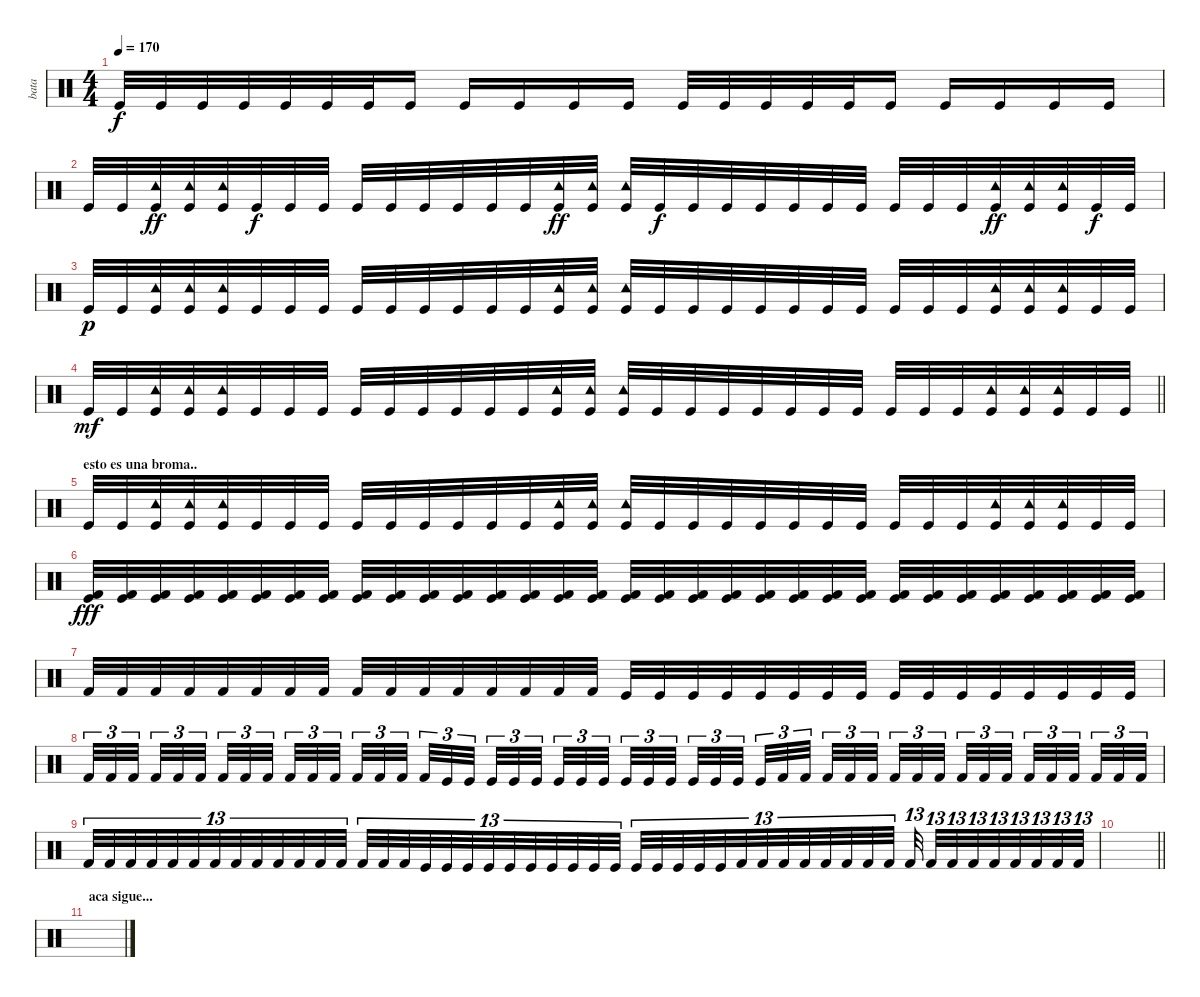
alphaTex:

\track ("bata" "bata") {instrument percussion}
\staff {score}
\articulation defaults
\ts (4 4)
\tempo 170
\clef neutral
\ks c "Kick (hit)".32{dy f} "Kick (hit)".32 "Kick (hit)".32 "Kick (hit)".32 "Kick (hit)".32 "Kick (hit)".32 "Kick (hit)".32 "Kick (hit)".16 "Kick (hit)".16 "Kick (hit)".16 "Kick (hit)".16 "Kick (hit)".16 "Kick (hit)".32 "Kick (hit)".32 "Kick (hit)".32 "Kick (hit)".32 "Kick (hit)".32 "Kick (hit)".16 "Kick (hit)".16 "Kick (hit)".16 "Kick (hit)".16 "Kick (hit)".16
|
"Kick (hit)".32 "Kick (hit)".32 ("Kick (hit)" "Tambourine (hit)").32{dy ff} ("Kick (hit)" "Tambourine (hit)").32 ("Kick (hit)" "Tambourine (hit)").32 "Kick (hit)".32{dy f} "Kick (hit)".32 "Kick (hit)".32 "Kick (hit)".32 "Kick (hit)".32 "Kick (hit)".32 "Kick (hit)".32 "Kick (hit)".32 "Kick (hit)".32 ("Kick (hit)" "Tambourine (hit)").32{dy ff} ("Kick (hit)" "Tambourine (hit)").32 ("Kick (hit)" "Tambourine (hit)").32 "Kick (hit)".32{dy f} "Kick (hit)".32 "Kick (hit)".32 "Kick (hit)".32 "Kick (hit)".32 "Kick (hit)".32 "Kick (hit)".32 "Kick (hit)".32 "Kick (hit)".32 "Kick (hit)".32 ("Kick (hit)" "Tambourine (hit)").32{dy ff} ("Kick (hit)" "Tambourine (hit)").32 ("Kick (hit)" "Tambourine (hit)").32 "Kick (hit)".32{dy f} "Kick (hit)".32 |
"Kick (hit)".32{dy p} "Kick (hit)".32 ("Kick (hit)" "Tambourine (hit)").32 ("Kick (hit)" "Tambourine (hit)").32 ("Kick (hit)" "Tambourine (hit)").32 "Kick (hit)".32 "Kick (hit)".32 "Kick (hit)".32 "Kick (hit)".32 "Kick (hit)".32 "Kick (hit)".32 "Kick (hit)".32 "Kick (hit)".32 "Kick (hit)".32 ("Kick (hit)" "Tambourine (hit)").32 ("Kick (hit)" "Tambourine (hit)").32 ("Kick (hit)" "Tambourine (hit)").32 "Kick (hit)".32 "Kick (hit)".32 "Kick (hit)".32 "Kick (hit)".32 "Kick (hit)".32 "Kick (hit)".32 "Kick (hit)".32 "Kick (hit)".32 "Kick (hit)".32 "Kick (hit)".32 ("Kick (hit)" "Tambourine (hit)").32 ("Kick (hit)" "Tambourine (hit)").32 ("Kick (hit)" "Tambourine (hit)").32 "Kick (hit)".32 "Kick (hit)".32 |
\barLineRight lightlight "Kick (hit)".32{dy mf} "Kick (hit)".32
("Kick (hit)" "Tambourine (hit)").32 ("Kick (hit)" "Tambourine (hit)").32 ("Kick (hit)" "Tambourine (hit)").32 "Kick (hit)".32 "Kick (hit)".32 "Kick (hit)".32 "Kick (hit)".32 "Kick (hit)".32 "Kick (hit)".32 "Kick (hit)".32 "Kick (hit)".32 "Kick (hit)".32 ("Kick (hit)" "Tambourine (hit)").32 ("Kick (hit)" "Tambourine (hit)").32 ("Kick (hit)" "Tambourine (hit)").32 "Kick (hit)".32 "Kick (hit)".32 "Kick (hit)".32 "Kick (hit)".32 "Kick (hit)".32 "Kick (hit)".32 "Kick (hit)".32 "Kick (hit)".32 "Kick (hit)".32 "Kick (hit)".32 ("Kick (hit)" "Tambourine (hit)").32 ("Kick (hit)" "Tambourine (hit)").32 ("Kick (hit)" "Tambourine (hit)").32 "Kick (hit)".32 "Kick (hit)".32 |
\section ("" "esto es una broma..")
"Kick (hit)".32 "Kick (hit)".32 ("Kick (hit)" "Tambourine (hit)").32 ("Kick (hit)" "Tambourine (hit)").32 ("Kick (hit)" "Tambourine (hit)").32 "Kick (hit)".32 "Kick (hit)".32 "Kick (hit)".32 "Kick (hit)".32 "Kick (hit)".32 "Kick (hit)".32 "Kick (hit)".32 "Kick (hit)".32 "Kick (hit)".32 ("Kick (hit)" "Tambourine (hit)").32 ("Kick (hit)" "Tambourine (hit)").32 ("Kick (hit)" "Tambourine (hit)").32 "Kick (hit)".32 "Kick (hit)".32 "Kick (hit)".32 "Kick (hit)".32 "Kick (hit)".32 "Kick (hit)".32 "Kick (hit)".32 "Kick (hit)".32 "Kick (hit)".32 "Kick (hit)".32 ("Kick (hit)" "Tambourine (hit)").32 ("Kick (hit)" "Tambourine (hit)").32 ("Kick (hit)" "Tambourine (hit)").32 "Kick (hit)".32 "Kick (hit)".32 |
("Kick (hit)" "Kick (hit) 2").32{dy fff} ("Kick (hit)" "Kick (hit) 2").32 ("Kick (hit)" "Kick (hit) 2").32 ("Kick (hit)" "Kick (hit) 2").32 ("Kick (hit)" "Kick (hit) 2").32 ("Kick (hit)" "Kick (hit) 2").32 ("Kick (hit)" "Kick (hit) 2").32 ("Kick (hit)" "Kick (hit) 2").32 ("Kick (hit)" "Kick (hit) 2").32 ("Kick (hit)" "Kick (hit) 2").32 ("Kick (hit)" "Kick (hit) 2").32 ("Kick (hit)" "Kick (hit) 2").32 ("Kick (hit)" "Kick (hit) 2").32 ("Kick (hit)" "Kick (hit) 2").32 ("Kick (hit)" "Kick (hit) 2").32 ("Kick (hit)" "Kick (hit) 2").32 ("Kick (hit)" "Kick (hit) 2").32 ("Kick (hit)" "Kick (hit) 2").32 ("Kick (hit)" "Kick (hit) 2").32 ("Kick (hit)" "Kick (hit) 2").32 ("Kick (hit)" "Kick (hit) 2").32 ("Kick (hit)" "Kick (hit) 2").32 ("Kick (hit)" "Kick (hit) 2").32 ("Kick (hit)" "Kick (hit) 2").32 ("Kick (hit)" "Kick (hit) 2").32 ("Kick (hit)" "Kick (hit) 2").32 ("Kick (hit)" "Kick (hit) 2").32 ("Kick (hit)" "Kick (hit) 2").32 ("Kick (hit)" "Kick (hit) 2").32 ("Kick (hit)" "Kick (hit) 2").32 ("Kick (hit)" "Kick (hit) 2").32 ("Kick (hit)" "Kick (hit) 2").32 |
"Kick (hit) 2".32 "Kick (hit) 2".32 "Kick (hit) 2".32 "Kick (hit) 2".32 "Kick (hit) 2".32 "Kick (hit) 2".32 "Kick (hit) 2".32 "Kick (hit) 2".32 "Kick (hit) 2".32 "Kick (hit) 2".32 "Kick (hit) 2".32 "Kick (hit) 2".32 "Kick (hit) 2".32 "Kick (hit) 2".32 "Kick (hit) 2".32 "Kick (hit) 2".32 "Kick (hit)".32 "Kick (hit)".32 "Kick (hit)".32 "Kick (hit)".32 "Kick (hit)".32 "Kick (hit)".32 "Kick (hit)".32 "Kick (hit)".32 "Kick (hit)".32 "Kick (hit)".32 "Kick (hit)".32 "Kick (hit)".32 "Kick (hit)".32 "Kick (hit)".32 "Kick (hit)".32 "Kick (hit)".32 |
"Kick (hit) 2".32{tu (3 2)} "Kick (hit) 2".32{tu (3 2)} "Kick (hit) 2".32{tu (3 2) beam splitsecondary} "Kick (hit) 2".32{tu (3 2)} "Kick (hit) 2".32{tu (3 2)} "Kick (hit) 2".32{tu (3 2) beam splitsecondary} "Kick (hit) 2".32{tu (3 2)} "Kick (hit) 2".32{tu (3 2)} "Kick (hit) 2".32{tu (3 2) beam splitsecondary} "Kick (hit) 2".32{tu (3 2)} "Kick (hit) 2".32{tu (3 2)} "Kick (hit) 2".32{tu (3 2)} "Kick (hit) 2".32{tu (3 2)} "Kick (hit) 2".32{tu (3 2)} "Kick (hit) 2".32{tu (3 2) beam splitsecondary} "Kick (hit) 2".32{tu (3 2)} "Kick (hit)".32{tu (3 2)} "Kick (hit)".32{tu (3 2) beam splitsecondary} "Kick (hit)".32{tu (3 2)} "Kick (hit)".32{tu (3 2)} "Kick (hit)".32{tu (3 2) beam splitsecondary} "Kick (hit)".32{tu (3 2)} "Kick (hit)".32{tu (3 2)} "Kick (hit)".32{tu (3 2)} "Kick (hit)".32{tu (3 2)} "Kick (hit)".32{tu (3 2)} "Kick (hit)".32{tu (3 2) beam splitsecondary} "Kick (hit)".32{tu (3 2)} "Kick (hit)".32{tu (3 2)} "Kick (hit)".32{tu (3 2) beam splitsecondary} "Kick (hit)".32{tu (3 2)} "Kick (hit) 2".32{tu (3 2)} "Kick (hit) 2".32{tu (3 2) beam splitsecondary} "Kick (hit) 2".32{tu (3 2)} "Kick (hit) 2".32{tu (3 2)} "Kick (hit) 2".32{tu (3 2)} "Kick (hit) 2".32{tu (3 2)} "Kick (hit) 2".32{tu (3 2)} "Kick (hit) 2".32{tu (3 2) beam splitsecondary} "Kick (hit) 2".32{tu (3 2)} "Kick (hit) 2".32{tu (3 2)} "Kick (hit) 2".32{tu (3 2) beam splitsecondary} "Kick (hit) 2".32{tu (3 2)} "Kick (hit) 2".32{tu (3 2)} "Kick (hit) 2".32{tu (3 2) beam splitsecondary} "Kick (hit) 2".32{tu (3 2)} "Kick (hit) 2".32{tu (3 2)} "Kick (hit) 2".32{tu (3 2)} |
"Kick (hit) 2".32{tu (13 8)} "Kick (hit) 2".32{tu (13 8)} "Kick (hit) 2".32{tu (13 8)} "Kick (hit) 2".32{tu (13 8)} "Kick (hit) 2".32{tu (13 8)} "Kick (hit) 2".32{tu (13 8)} "Kick (hit) 2".32{tu (13 8)} "Kick (hit) 2".32{tu (13 8)} "Kick (hit) 2".32{tu (13 8)} "Kick (hit) 2".32{tu (13 8)} "Kick (hit) 2".32{tu (13 8)} "Kick (hit) 2".32{tu (13 8)} "Kick (hit) 2".32{tu (13 8)} "Kick (hit) 2".32{tu (13 8)} "Kick (hit) 2".32{tu (13 8)} "Kick (hit) 2".32{tu (13 8)} "Kick (hit)".32{tu (13 8)} "Kick (hit)".32{tu (13 8)} "Kick (hit)".32{tu (13 8)} "Kick (hit)".32{tu (13 8)} "Kick (hit)".32{tu (13 8)} "Kick (hit)".32{tu (13 8)} "Kick (hit)".32{tu (13 8)} "Kick (hit)".32{tu (13 8)} "Kick (hit)".32{tu (13 8)} "Kick (hit)".32{tu (13 8)} "Kick (hit)".32{tu (13 8)} "Kick (hit)".32{tu (13 8)} "Kick (hit)".32{tu (13 8)} "Kick (hit)".32{tu (13 8)} "Kick (hit)".32{tu (13 8)} "Kick (hit) 2".32{tu (13 8)} "Kick (hit) 2".32{tu (13 8)} "Kick (hit) 2".32{tu (13 8)} "Kick (hit) 2".32{tu (13 8)} "Kick (hit) 2".32{tu (13 8)} "Kick (hit) 2".32{tu (13 8)} "Kick (hit) 2".32{tu (13 8)} "Kick (hit) 2".32{tu (13 8)} "Kick (hit) 2".32{tu (13 8)} "Kick (hit) 2".32{tu (13 8)} "Kick (hit) 2".32{tu (13 8)} "Kick (hit) 2".32{tu (13 8)} "Kick (hit) 2".32{tu (13 8)} "Kick (hit) 2".32{tu (13 8)} "Kick (hit) 2".32{tu (13 8)} "Kick (hit) 2".32{tu (13 8)} "Kick (hit) 2".32{tu (13 8)} |
\barLineRight lightlight
|
\section ("" "aca sigue...")
